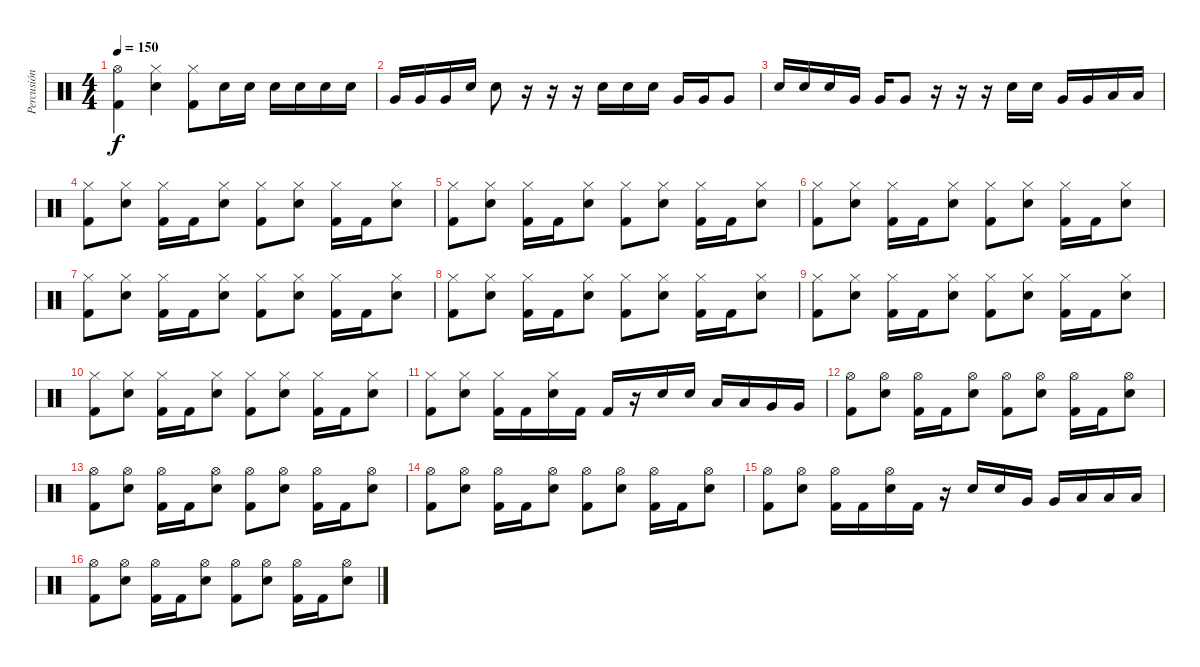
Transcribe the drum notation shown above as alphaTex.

\track ("Percusión" "Percusión") {instrument percussion}
\staff {score}
\articulation defaults
\ts (4 4)
\tempo 150
\clef neutral
\ks c
("Hi-Hat (open)" "Kick (hit) 2").4{dy f} ("Hi-Hat (closed)" "Electric Snare (hit)").4 ("Hi-Hat (closed)" "Kick (hit) 2").8 "Electric Snare (hit)".16 "Electric Snare (hit)".16 "Electric Snare (hit)".16 "Electric Snare (hit)".16 "Electric Snare (hit)".16 "Electric Snare (hit)".16 |
"Very Low Tom (hit)".16 "Very Low Tom (hit)".16 "Very Low Tom (hit)".16 "Electric Snare (hit)".16 "Electric Snare (hit)".8 r.16 r.16 r.16 "Electric Snare (hit)".16 "Electric Snare (hit)".16 "Electric Snare (hit)".16 "Very Low Tom (hit)".16 "Very Low Tom (hit)".16 "Very Low Tom (hit)".8 |
"Electric Snare (hit)".16 "Electric Snare (hit)".16 "Electric Snare (hit)".16 "Very Low Tom (hit)".16 "Very Low Tom (hit)".16 "Very Low Tom (hit)".8 r.16 r.16 r.16 "Electric Snare (hit)".16 "Electric Snare (hit)".16 "Very Low Tom (hit)".16 "Very Low Tom (hit)".16 "Low Tom (hit)".16 "Low Tom (hit)".16 |
("Hi-Hat (closed)" "Kick (hit) 2").8 ("Hi-Hat (closed)" "Electric Snare (hit)").8 ("Hi-Hat (closed)" "Kick (hit) 2").16 "Kick (hit) 2".16 ("Hi-Hat (closed)" "Electric Snare (hit)").8 ("Hi-Hat (closed)" "Kick (hit) 2").8 ("Hi-Hat (closed)" "Electric Snare (hit)").8 ("Hi-Hat (closed)" "Kick (hit) 2").16 "Kick (hit) 2".16 ("Hi-Hat (closed)" "Electric Snare (hit)").8 |
("Hi-Hat (closed)" "Kick (hit) 2").8 ("Hi-Hat (closed)" "Electric Snare (hit)").8 ("Hi-Hat (closed)" "Kick (hit) 2").16 "Kick (hit) 2".16 ("Hi-Hat (closed)" "Electric Snare (hit)").8 ("Hi-Hat (closed)" "Kick (hit) 2").8 ("Hi-Hat (closed)" "Electric Snare (hit)").8 ("Hi-Hat (closed)" "Kick (hit) 2").16 "Kick (hit) 2".16 ("Hi-Hat (closed)" "Electric Snare (hit)").8 |
("Hi-Hat (closed)" "Kick (hit) 2").8 ("Hi-Hat (closed)" "Electric Snare (hit)").8 ("Hi-Hat (closed)" "Kick (hit) 2").16 "Kick (hit) 2".16 ("Hi-Hat (closed)" "Electric Snare (hit)").8 ("Hi-Hat (closed)" "Kick (hit) 2").8 ("Hi-Hat (closed)" "Electric Snare (hit)").8 ("Hi-Hat (closed)" "Kick (hit) 2").16 "Kick (hit) 2".16 ("Hi-Hat (closed)" "Electric Snare (hit)").8 |
("Hi-Hat (closed)" "Kick (hit) 2").8 ("Hi-Hat (closed)" "Electric Snare (hit)").8 ("Hi-Hat (closed)" "Kick (hit) 2").16 "Kick (hit) 2".16 ("Hi-Hat (closed)" "Electric Snare (hit)").8 ("Hi-Hat (closed)" "Kick (hit) 2").8 ("Hi-Hat (closed)" "Electric Snare (hit)").8 ("Hi-Hat (closed)" "Kick (hit) 2").16 "Kick (hit) 2".16 ("Hi-Hat (closed)" "Electric Snare (hit)").8 |
("Hi-Hat (closed)" "Kick (hit) 2").8 ("Hi-Hat (closed)" "Electric Snare (hit)").8 ("Hi-Hat (closed)" "Kick (hit) 2").16 "Kick (hit) 2".16 ("Hi-Hat (closed)" "Electric Snare (hit)").8 ("Hi-Hat (closed)" "Kick (hit) 2").8 ("Hi-Hat (closed)" "Electric Snare (hit)").8 ("Hi-Hat (closed)" "Kick (hit) 2").16 "Kick (hit) 2".16 ("Hi-Hat (closed)" "Electric Snare (hit)").8 |
("Hi-Hat (closed)" "Kick (hit) 2").8 ("Hi-Hat (closed)" "Electric Snare (hit)").8 ("Hi-Hat (closed)" "Kick (hit) 2").16 "Kick (hit) 2".16 ("Hi-Hat (closed)" "Electric Snare (hit)").8 ("Hi-Hat (closed)" "Kick (hit) 2").8 ("Hi-Hat (closed)" "Electric Snare (hit)").8 ("Hi-Hat (closed)" "Kick (hit) 2").16 "Kick (hit) 2".16 ("Hi-Hat (closed)" "Electric Snare (hit)").8 |
("Hi-Hat (closed)" "Kick (hit) 2").8 ("Hi-Hat (closed)" "Electric Snare (hit)").8 ("Hi-Hat (closed)" "Kick (hit) 2").16 "Kick (hit) 2".16 ("Hi-Hat (closed)" "Electric Snare (hit)").8 ("Hi-Hat (closed)" "Kick (hit) 2").8 ("Hi-Hat (closed)" "Electric Snare (hit)").8 ("Hi-Hat (closed)" "Kick (hit) 2").16 "Kick (hit) 2".16 ("Hi-Hat (closed)" "Electric Snare (hit)").8 |
("Hi-Hat (closed)" "Kick (hit) 2").8 ("Hi-Hat (closed)" "Electric Snare (hit)").8 ("Hi-Hat (closed)" "Kick (hit) 2").16 "Kick (hit) 2".16 ("Hi-Hat (closed)" "Electric Snare (hit)").16 "Kick (hit) 2".16 "Kick (hit) 2".16 r.16 "Electric Snare (hit)".16 "Electric Snare (hit)".16 "Low Tom (hit)".16 "Low Tom (hit)".16 "Very Low Tom (hit)".16 "Very Low Tom (hit)".16 |
("Hi-Hat (open)" "Kick (hit) 2").8 ("Hi-Hat (open)" "Electric Snare (hit)").8 ("Hi-Hat (open)" "Kick (hit) 2").16 "Kick (hit) 2".16 ("Hi-Hat (open)" "Electric Snare (hit)").8 ("Hi-Hat (open)" "Kick (hit) 2").8 ("Hi-Hat (open)" "Electric Snare (hit)").8 ("Hi-Hat (open)" "Kick (hit) 2").16 "Kick (hit) 2".16 ("Hi-Hat (open)" "Electric Snare (hit)").8 |
("Hi-Hat (open)" "Kick (hit) 2").8 ("Hi-Hat (open)" "Electric Snare (hit)").8 ("Hi-Hat (open)" "Kick (hit) 2").16 "Kick (hit) 2".16 ("Hi-Hat (open)" "Electric Snare (hit)").8 ("Hi-Hat (open)" "Kick (hit) 2").8 ("Hi-Hat (open)" "Electric Snare (hit)").8 ("Hi-Hat (open)" "Kick (hit) 2").16 "Kick (hit) 2".16 ("Hi-Hat (open)" "Electric Snare (hit)").8 |
("Hi-Hat (open)" "Kick (hit) 2").8 ("Hi-Hat (open)" "Electric Snare (hit)").8 ("Hi-Hat (open)" "Kick (hit) 2").16 "Kick (hit) 2".16 ("Hi-Hat (open)" "Electric Snare (hit)").8 ("Hi-Hat (open)" "Kick (hit) 2").8 ("Hi-Hat (open)" "Electric Snare (hit)").8 ("Hi-Hat (open)" "Kick (hit) 2").16 "Kick (hit) 2".16 ("Hi-Hat (open)" "Electric Snare (hit)").8 |
("Hi-Hat (open)" "Kick (hit) 2").8 ("Hi-Hat (open)" "Electric Snare (hit)").8 ("Hi-Hat (open)" "Kick (hit) 2").16 "Kick (hit) 2".16 ("Hi-Hat (open)" "Electric Snare (hit)").16 "Kick (hit) 2".16 r.16 "Electric Snare (hit)".16 "Electric Snare (hit)".16 "Very Low Tom (hit)".16 "Very Low Tom (hit)".16 "Low Tom (hit)".16 "Low Tom (hit)".16 "Low Tom (hit)".16 |
("Hi-Hat (open)" "Kick (hit) 2").8 ("Hi-Hat (open)" "Electric Snare (hit)").8 ("Hi-Hat (open)" "Kick (hit) 2").16 "Kick (hit) 2".16 ("Hi-Hat (open)" "Electric Snare (hit)").8 ("Hi-Hat (open)" "Kick (hit) 2").8 ("Hi-Hat (open)" "Electric Snare (hit)").8 ("Hi-Hat (open)" "Kick (hit) 2").16 "Kick (hit) 2".16 ("Hi-Hat (open)" "Electric Snare (hit)").8
